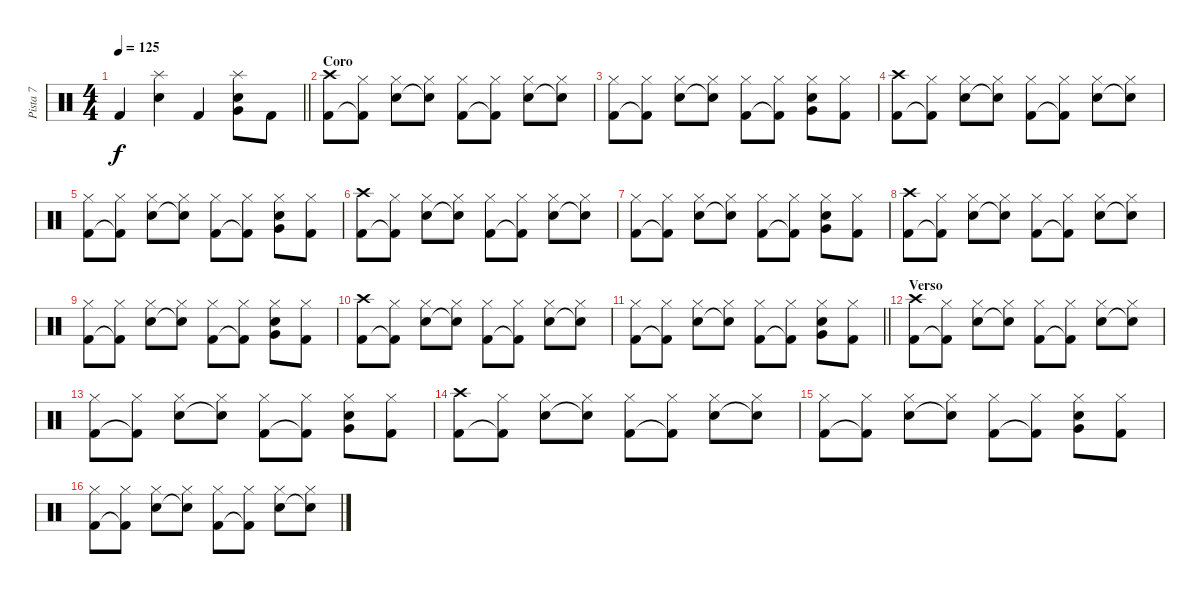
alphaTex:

\track ("Pista 7" "Pista 7") {instrument percussion}
\staff {score}
\articulation defaults
\ts (4 4)
\tempo 125
\clef neutral
\barLineRight lightlight
\ks c "Kick (hit) 2".4{dy f}
("Splash (hit)" "Electric Snare (hit)").4 "Kick (hit) 2".4 ("Splash (hit)" "Very Low Tom (hit)" "Electric Snare (hit)").8 "Kick (hit) 2".8 |
\section ("" "Coro")
("Crash high (hit)" "Kick (hit) 2").8 ("Hi-Hat (closed)" "Kick (hit) 2"{t}).8 ("Hi-Hat (closed)" "Electric Snare (hit)").8 ("Hi-Hat (closed)" "Electric Snare (hit)"{t}).8 ("Hi-Hat (closed)" "Kick (hit) 2").8 ("Hi-Hat (closed)" "Kick (hit) 2"{t}).8 ("Hi-Hat (closed)" "Electric Snare (hit)").8 ("Hi-Hat (closed)" "Electric Snare (hit)"{t}).8 |
("Hi-Hat (closed)" "Kick (hit) 2").8 ("Hi-Hat (closed)" "Kick (hit) 2"{t}).8 ("Hi-Hat (closed)" "Electric Snare (hit)").8 ("Hi-Hat (closed)" "Electric Snare (hit)"{t}).8 ("Hi-Hat (closed)" "Kick (hit) 2").8 ("Hi-Hat (closed)" "Kick (hit) 2"{t}).8 ("Hi-Hat (closed)" "Very Low Tom (hit)" "Electric Snare (hit)").8 ("Hi-Hat (closed)" "Kick (hit) 2").8 |
("Crash high (hit)" "Kick (hit) 2").8 ("Hi-Hat (closed)" "Kick (hit) 2"{t}).8 ("Hi-Hat (closed)" "Electric Snare (hit)").8 ("Hi-Hat (closed)" "Electric Snare (hit)"{t}).8 ("Hi-Hat (closed)" "Kick (hit) 2").8 ("Hi-Hat (closed)" "Kick (hit) 2"{t}).8 ("Hi-Hat (closed)" "Electric Snare (hit)").8 ("Hi-Hat (closed)" "Electric Snare (hit)"{t}).8 |
("Hi-Hat (closed)" "Kick (hit) 2").8 ("Hi-Hat (closed)" "Kick (hit) 2"{t}).8 ("Hi-Hat (closed)" "Electric Snare (hit)").8 ("Hi-Hat (closed)" "Electric Snare (hit)"{t}).8 ("Hi-Hat (closed)" "Kick (hit) 2").8 ("Hi-Hat (closed)" "Kick (hit) 2"{t}).8 ("Hi-Hat (closed)" "Very Low Tom (hit)" "Electric Snare (hit)").8 ("Hi-Hat (closed)" "Kick (hit) 2").8 |
("Crash high (hit)" "Kick (hit) 2").8 ("Hi-Hat (closed)" "Kick (hit) 2"{t}).8 ("Hi-Hat (closed)" "Electric Snare (hit)").8 ("Hi-Hat (closed)" "Electric Snare (hit)"{t}).8 ("Hi-Hat (closed)" "Kick (hit) 2").8 ("Hi-Hat (closed)" "Kick (hit) 2"{t}).8 ("Hi-Hat (closed)" "Electric Snare (hit)").8 ("Hi-Hat (closed)" "Electric Snare (hit)"{t}).8 |
("Hi-Hat (closed)" "Kick (hit) 2").8 ("Hi-Hat (closed)" "Kick (hit) 2"{t}).8 ("Hi-Hat (closed)" "Electric Snare (hit)").8 ("Hi-Hat (closed)" "Electric Snare (hit)"{t}).8 ("Hi-Hat (closed)" "Kick (hit) 2").8 ("Hi-Hat (closed)" "Kick (hit) 2"{t}).8 ("Hi-Hat (closed)" "Very Low Tom (hit)" "Electric Snare (hit)").8 ("Hi-Hat (closed)" "Kick (hit) 2").8 |
("Crash high (hit)" "Kick (hit) 2").8 ("Hi-Hat (closed)" "Kick (hit) 2"{t}).8 ("Hi-Hat (closed)" "Electric Snare (hit)").8 ("Hi-Hat (closed)" "Electric Snare (hit)"{t}).8 ("Hi-Hat (closed)" "Kick (hit) 2").8 ("Hi-Hat (closed)" "Kick (hit) 2"{t}).8 ("Hi-Hat (closed)" "Electric Snare (hit)").8 ("Hi-Hat (closed)" "Electric Snare (hit)"{t}).8 |
("Hi-Hat (closed)" "Kick (hit) 2").8 ("Hi-Hat (closed)" "Kick (hit) 2"{t}).8 ("Hi-Hat (closed)" "Electric Snare (hit)").8 ("Hi-Hat (closed)" "Electric Snare (hit)"{t}).8 ("Hi-Hat (closed)" "Kick (hit) 2").8 ("Hi-Hat (closed)" "Kick (hit) 2"{t}).8 ("Hi-Hat (closed)" "Very Low Tom (hit)" "Electric Snare (hit)").8 ("Hi-Hat (closed)" "Kick (hit) 2").8 |
("Crash high (hit)" "Kick (hit) 2").8 ("Hi-Hat (closed)" "Kick (hit) 2"{t}).8 ("Hi-Hat (closed)" "Electric Snare (hit)").8 ("Hi-Hat (closed)" "Electric Snare (hit)"{t}).8 ("Hi-Hat (closed)" "Kick (hit) 2").8 ("Hi-Hat (closed)" "Kick (hit) 2"{t}).8 ("Hi-Hat (closed)" "Electric Snare (hit)").8 ("Hi-Hat (closed)" "Electric Snare (hit)"{t}).8 |
\barLineRight lightlight
("Hi-Hat (closed)" "Kick (hit) 2").8 ("Hi-Hat (closed)" "Kick (hit) 2"{t}).8 ("Hi-Hat (closed)" "Electric Snare (hit)").8 ("Hi-Hat (closed)" "Electric Snare (hit)"{t}).8 ("Hi-Hat (closed)" "Kick (hit) 2").8 ("Hi-Hat (closed)" "Kick (hit) 2"{t}).8 ("Hi-Hat (closed)" "Very Low Tom (hit)" "Electric Snare (hit)").8 ("Hi-Hat (closed)" "Kick (hit) 2").8 |
\section ("" "Verso")
("Crash high (hit)" "Kick (hit) 2").8 ("Hi-Hat (closed)" "Kick (hit) 2"{t}).8 ("Hi-Hat (closed)" "Electric Snare (hit)").8 ("Hi-Hat (closed)" "Electric Snare (hit)"{t}).8 ("Hi-Hat (closed)" "Kick (hit) 2").8 ("Hi-Hat (closed)" "Kick (hit) 2"{t}).8 ("Hi-Hat (closed)" "Electric Snare (hit)").8 ("Hi-Hat (closed)" "Electric Snare (hit)"{t}).8 |
("Hi-Hat (closed)" "Kick (hit) 2").8 ("Hi-Hat (closed)" "Kick (hit) 2"{t}).8 ("Hi-Hat (closed)" "Electric Snare (hit)").8 ("Hi-Hat (closed)" "Electric Snare (hit)"{t}).8 ("Hi-Hat (closed)" "Kick (hit) 2").8 ("Hi-Hat (closed)" "Kick (hit) 2"{t}).8 ("Hi-Hat (closed)" "Very Low Tom (hit)" "Electric Snare (hit)").8 ("Hi-Hat (closed)" "Kick (hit) 2").8 |
("Crash high (hit)" "Kick (hit) 2").8 ("Hi-Hat (closed)" "Kick (hit) 2"{t}).8 ("Hi-Hat (closed)" "Electric Snare (hit)").8 ("Hi-Hat (closed)" "Electric Snare (hit)"{t}).8 ("Hi-Hat (closed)" "Kick (hit) 2").8 ("Hi-Hat (closed)" "Kick (hit) 2"{t}).8 ("Hi-Hat (closed)" "Electric Snare (hit)").8 ("Hi-Hat (closed)" "Electric Snare (hit)"{t}).8 |
("Hi-Hat (closed)" "Kick (hit) 2").8 ("Hi-Hat (closed)" "Kick (hit) 2"{t}).8 ("Hi-Hat (closed)" "Electric Snare (hit)").8 ("Hi-Hat (closed)" "Electric Snare (hit)"{t}).8 ("Hi-Hat (closed)" "Kick (hit) 2").8 ("Hi-Hat (closed)" "Kick (hit) 2"{t}).8 ("Hi-Hat (closed)" "Very Low Tom (hit)" "Electric Snare (hit)").8 ("Hi-Hat (closed)" "Kick (hit) 2").8 |
("Hi-Hat (closed)" "Kick (hit) 2").8 ("Hi-Hat (closed)" "Kick (hit) 2"{t}).8 ("Hi-Hat (closed)" "Electric Snare (hit)").8 ("Hi-Hat (closed)" "Electric Snare (hit)"{t}).8 ("Hi-Hat (closed)" "Kick (hit) 2").8 ("Hi-Hat (closed)" "Kick (hit) 2"{t}).8 ("Hi-Hat (closed)" "Electric Snare (hit)").8 ("Hi-Hat (closed)" "Electric Snare (hit)"{t}).8
